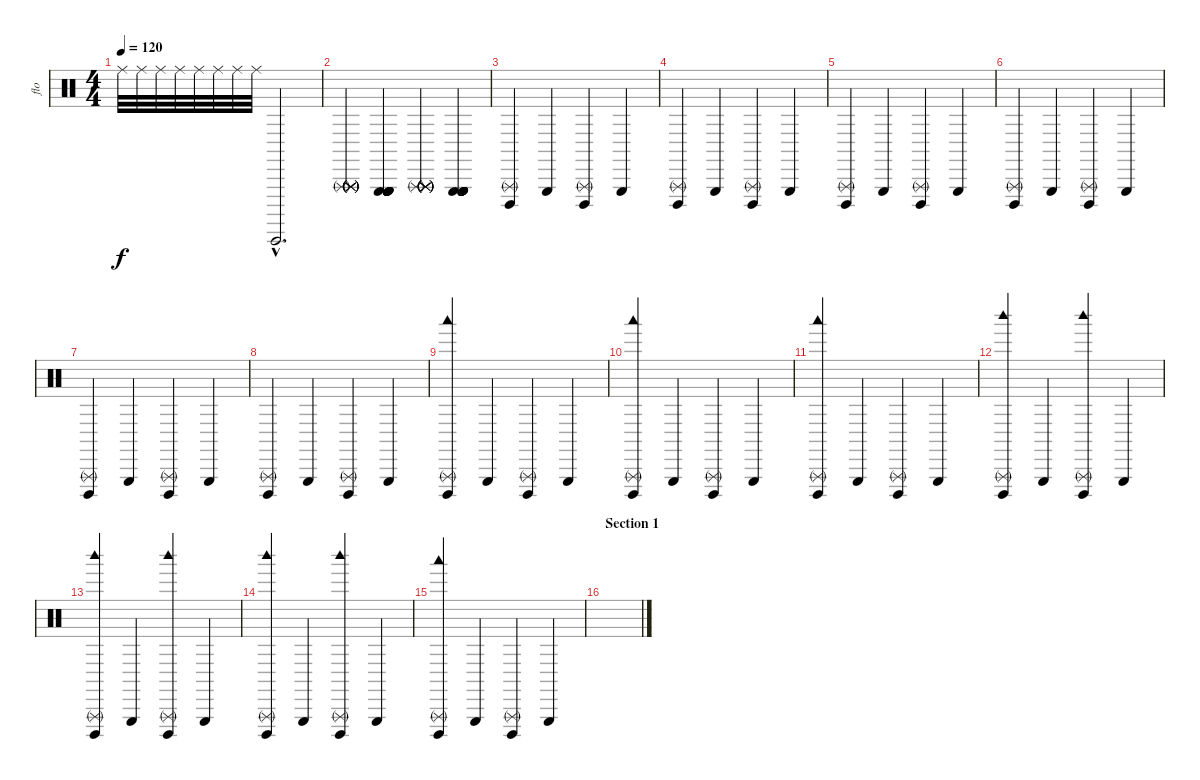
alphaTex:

\track ("flo" "flo") {instrument percussion}
\staff {score}
\articulation defaults
\ts (4 4)
\tempo 120
\clef neutral
\ks c "Ride (middle)".32{dy f} "Ride (middle)".32 "Ride (middle)".32 "Ride (middle)".32 "Ride (middle)".32 "Ride (middle)".32 "Ride (middle)".32 "Ride (middle)".32 "Guiro (hit)"{hac}.2{d}
|
("Triangle (rnute)" "Triangle (rnute)" "Triangle (rnute)" "Triangle (rnute)" "Triangle (rnute)" "Triangle (rnute)").4 ("Triangle (hit)" "Triangle (hit)" "Triangle (hit)" "Triangle (hit)" "Triangle (hit)" "Triangle (hit)").4 ("Triangle (rnute)" "Triangle (rnute)" "Triangle (rnute)" "Triangle (rnute)" "Triangle (rnute)" "Triangle (rnute)").4 ("Triangle (hit)" "Triangle (hit)" "Triangle (hit)" "Triangle (hit)" "Triangle (hit)" "Triangle (hit)").4 |
("Triangle (rnute)" "Cuica (open)").4 "Triangle (hit)".4 ("Cuica (open)" "Triangle (rnute)").4 "Triangle (hit)".4 |
("Triangle (rnute)" "Cuica (open)").4 "Triangle (hit)".4 ("Cuica (open)" "Triangle (rnute)").4 "Triangle (hit)".4 |
("Triangle (rnute)" "Cuica (open)").4 "Triangle (hit)".4 ("Cuica (open)" "Triangle (rnute)").4 "Triangle (hit)".4 |
("Triangle (rnute)" "Cuica (open)").4 "Triangle (hit)".4 ("Cuica (open)" "Triangle (rnute)").4 "Triangle (hit)".4 |
("Triangle (rnute)" "Cuica (open)").4 "Triangle (hit)".4 ("Cuica (open)" "Triangle (rnute)").4 "Triangle (hit)".4 |
("Triangle (rnute)" "Cuica (open)").4 "Triangle (hit)".4 ("Cuica (open)" "Triangle (rnute)").4 "Triangle (hit)".4 |
("Triangle (rnute)" "Woodblock low (hit)" "Cuica (open)").4 "Triangle (hit)".4 ("Cuica (open)" "Triangle (rnute)").4 "Triangle (hit)".4 |
("Triangle (rnute)" "Woodblock low (hit)" "Cuica (open)").4 "Triangle (hit)".4 ("Cuica (open)" "Triangle (rnute)").4 "Triangle (hit)".4 |
("Triangle (rnute)" "Woodblock low (hit)" "Cuica (open)").4 "Triangle (hit)".4 ("Cuica (open)" "Triangle (rnute)").4 "Triangle (hit)".4 |
("Triangle (rnute)" "Woodblock high (hit)" "Cuica (open)").4 "Triangle (hit)".4 ("Cuica (open)" "Woodblock high (hit)" "Triangle (rnute)").4 "Triangle (hit)".4 |
("Triangle (rnute)" "Woodblock high (hit)" "Cuica (open)").4 "Triangle (hit)".4 ("Cuica (open)" "Woodblock high (hit)" "Triangle (rnute)").4 "Triangle (hit)".4 |
("Triangle (rnute)" "Woodblock high (hit)" "Cuica (open)").4 "Triangle (hit)".4 ("Cuica (open)" "Woodblock high (hit)" "Triangle (rnute)").4 "Triangle (hit)".4 |
("Triangle (rnute)" "Woodblock low (hit)" "Cuica (open)").4 "Triangle (hit)".4 ("Cuica (open)" "Triangle (rnute)").4 "Triangle (hit)".4 |
\section ("" "Section 1")
